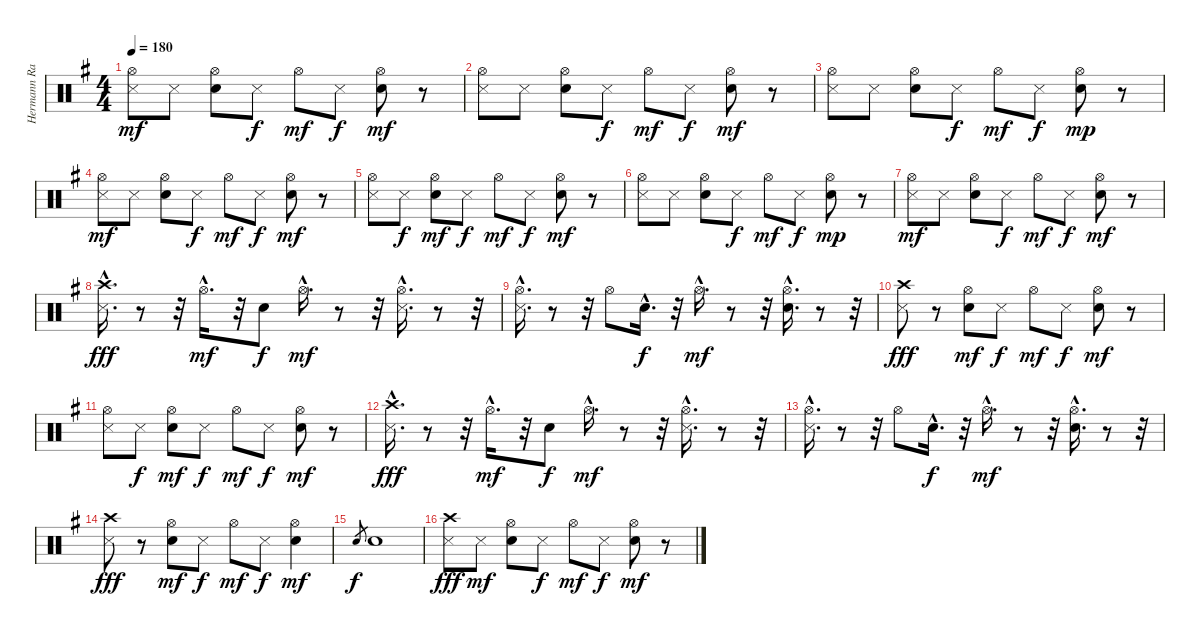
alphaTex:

\track ("Hermann Rarebel" "Hermann Ra") {instrument percussion}
\staff {score}
\articulation defaults
\ts (4 4)
\tempo 180
\clef neutral
\ks eminor
("Hi-Hat (open)" "Metronome (hit)").8{dy mf} "Metronome (hit)".8 ("Hi-Hat (open)" "Snare (hit) 2").8 "Metronome (hit)".8{dy f} "Hi-Hat (open)".8{dy mf} "Metronome (hit)".8{dy f} ("Hi-Hat (open)" "Snare (hit) 2").8{dy mf} r.8 |
("Hi-Hat (open)" "Metronome (hit)").8 "Metronome (hit)".8 ("Hi-Hat (open)" "Snare (hit) 2").8 "Metronome (hit)".8{dy f} "Hi-Hat (open)".8{dy mf} "Metronome (hit)".8{dy f} ("Hi-Hat (open)" "Snare (hit) 2").8{dy mf} r.8 |
("Hi-Hat (open)" "Metronome (hit)").8 "Metronome (hit)".8 ("Hi-Hat (open)" "Snare (hit) 2").8 "Metronome (hit)".8{dy f} "Hi-Hat (open)".8{dy mf} "Metronome (hit)".8{dy f} ("Hi-Hat (open)" "Snare (hit) 2").8{dy mp} r.8 |
("Hi-Hat (open)" "Metronome (hit)").8{dy mf} "Metronome (hit)".8 ("Hi-Hat (open)" "Snare (hit) 2").8 "Metronome (hit)".8{dy f} "Hi-Hat (open)".8{dy mf} "Metronome (hit)".8{dy f} ("Hi-Hat (open)" "Snare (hit) 2").8{dy mf} r.8 |
("Hi-Hat (open)" "Metronome (hit)").8 "Metronome (hit)".8{dy f} ("Hi-Hat (open)" "Snare (hit) 2").8{dy mf} "Metronome (hit)".8{dy f} "Hi-Hat (open)".8{dy mf} "Metronome (hit)".8{dy f} ("Hi-Hat (open)" "Snare (hit) 2").8{dy mf} r.8 |
("Hi-Hat (open)" "Metronome (hit)").8 "Metronome (hit)".8 ("Hi-Hat (open)" "Snare (hit) 2").8 "Metronome (hit)".8{dy f} "Hi-Hat (open)".8{dy mf} "Metronome (hit)".8{dy f} ("Hi-Hat (open)" "Snare (hit) 2").8{dy mp} r.8 |
("Hi-Hat (open)" "Metronome (hit)").8{dy mf} "Metronome (hit)".8 ("Hi-Hat (open)" "Snare (hit) 2").8 "Metronome (hit)".8{dy f} "Hi-Hat (open)".8{dy mf} "Metronome (hit)".8{dy f} ("Hi-Hat (open)" "Snare (hit) 2").8{dy mf} r.8 |
("Metronome (hit)"{hac} "Crash high (hit)"{hac}).16{d dy fff} r.8 r.32 "Hi-Hat (open)"{hac}.16{d dy mf} r.32 "Snare (hit) 2".8{dy f} "Hi-Hat (open)"{hac}.16{d dy mf} r.8 r.32 ("Hi-Hat (open)"{hac} "Metronome (hit)"{hac}).16{d} r.8 r.32 |
("Hi-Hat (open)"{hac} "Metronome (hit)"{hac}).16{d} r.8 r.32 "Hi-Hat (open)".8 "Snare (hit) 2"{hac}.16{d dy f} r.32 "Hi-Hat (open)"{hac}.16{d dy mf} r.8 r.32 ("Snare (hit) 2"{hac} "Hi-Hat (open)"{hac}).16{d} r.8 r.32 |
("Crash high (hit)" "Metronome (hit)").8{dy fff} r.8 ("Hi-Hat (open)" "Snare (hit) 2").8{dy mf} "Metronome (hit)".8{dy f} "Hi-Hat (open)".8{dy mf} "Metronome (hit)".8{dy f} ("Hi-Hat (open)" "Snare (hit) 2").8{dy mf} r.8 |
("Hi-Hat (open)" "Metronome (hit)").8 "Metronome (hit)".8{dy f} ("Hi-Hat (open)" "Snare (hit) 2").8{dy mf} "Metronome (hit)".8{dy f} "Hi-Hat (open)".8{dy mf} "Metronome (hit)".8{dy f} ("Hi-Hat (open)" "Snare (hit) 2").8{dy mf} r.8 |
("Metronome (hit)"{hac} "Crash high (hit)"{hac}).16{d dy fff} r.8 r.32 "Hi-Hat (open)"{hac}.16{d dy mf} r.32 "Snare (hit) 2".8{dy f} "Hi-Hat (open)"{hac}.16{d dy mf} r.8 r.32 ("Hi-Hat (open)"{hac} "Metronome (hit)"{hac}).16{d} r.8 r.32 |
("Hi-Hat (open)"{hac} "Metronome (hit)"{hac}).16{d} r.8 r.32 "Hi-Hat (open)".8 "Snare (hit) 2"{hac}.16{d dy f} r.32 "Hi-Hat (open)"{hac}.16{d dy mf} r.8 r.32 ("Snare (hit) 2"{hac} "Hi-Hat (open)"{hac}).16{d} r.8 r.32 |
("Crash high (hit)" "Metronome (hit)").8{dy fff} r.8 ("Hi-Hat (open)" "Snare (hit) 2").8{dy mf} "Metronome (hit)".8{dy f} "Hi-Hat (open)".8{dy mf} "Metronome (hit)".8{dy f} ("Hi-Hat (open)" "Snare (hit) 2").4{dy mf} |
"Electric Snare (hit)".8{gr dy f} "Electric Snare (hit)".1 |
("Crash high (hit)" "Metronome (hit)").8{dy fff} "Metronome (hit)".8{dy mf} ("Hi-Hat (open)" "Snare (hit) 2").8 "Metronome (hit)".8{dy f} "Hi-Hat (open)".8{dy mf} "Metronome (hit)".8{dy f} ("Hi-Hat (open)" "Snare (hit) 2").8{dy mf} r.8
